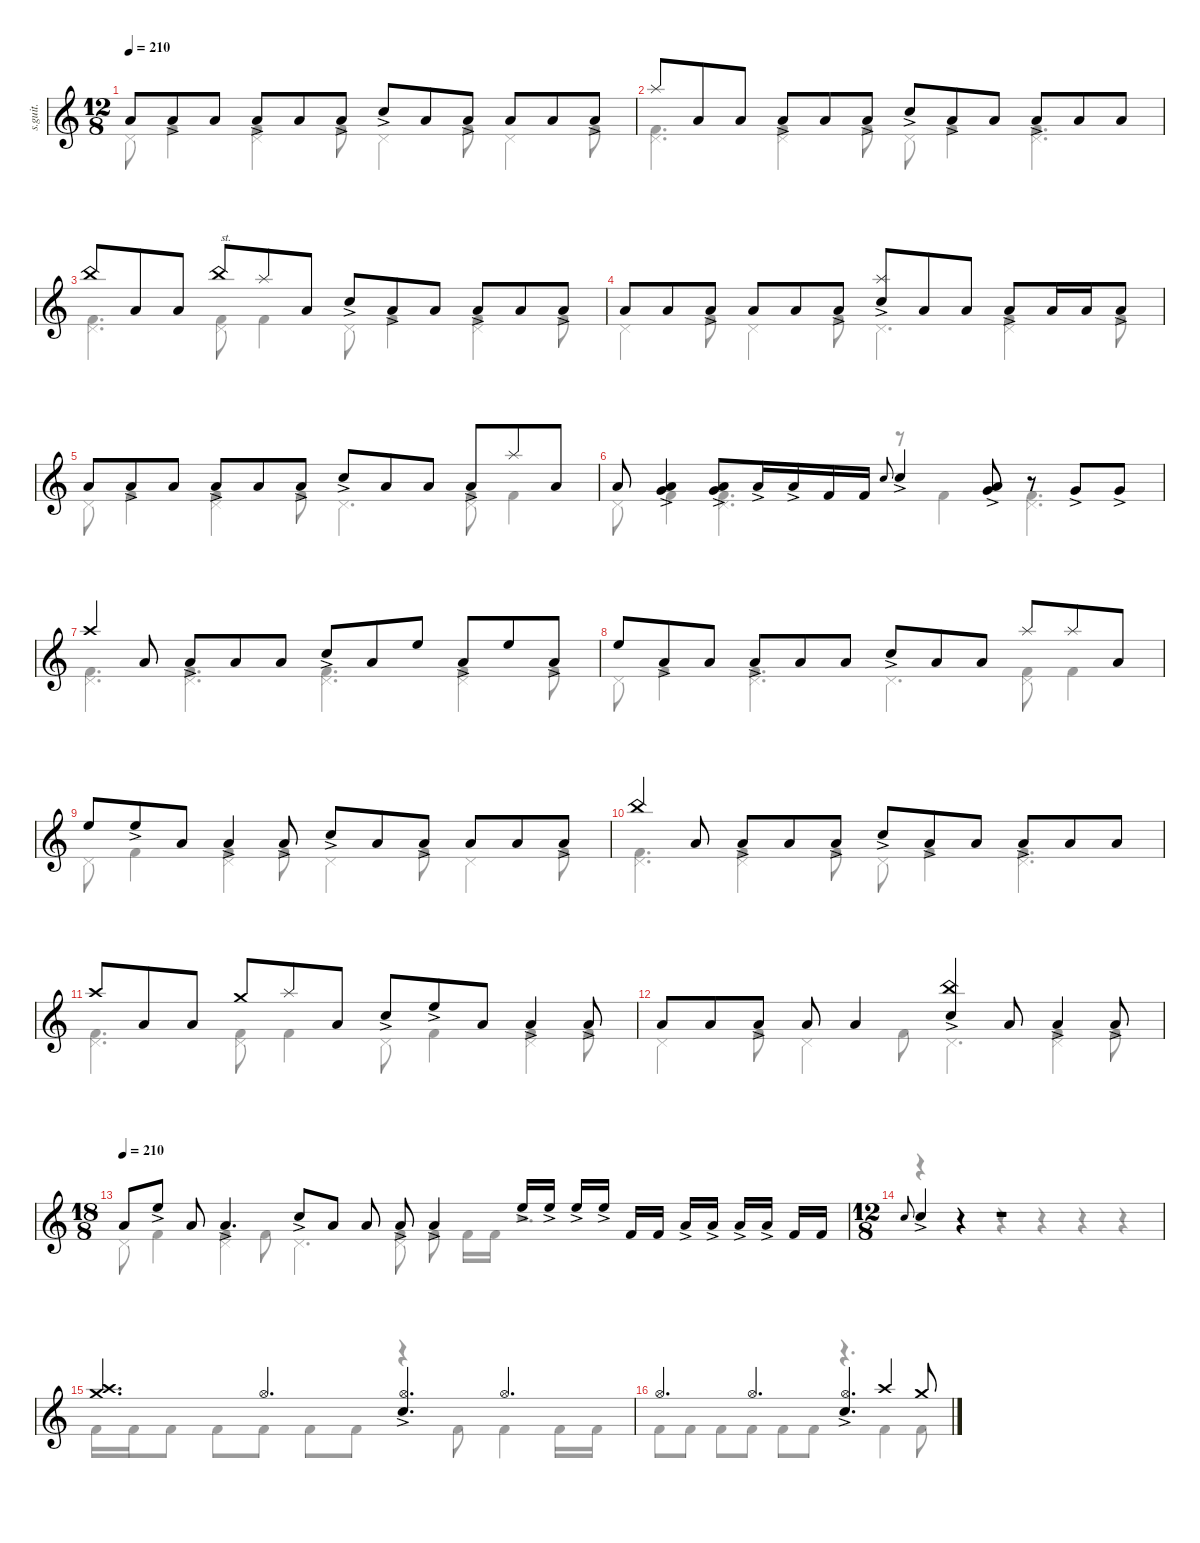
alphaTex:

\defaultSystemsLayout 4
\hideDynamics
\bracketExtendMode nobrackets
\track ("Percussion" "s.guit.") {instrument percussion}
\staff {score}
\articulation defaults
\voice
\ts (12 8)
\tempo 210
\clef g2
\ks c "Low Tom (hit)".8{lyrics (0 "") lyrics (1 "") lyrics (2 "") lyrics (3 "") lyrics (4 "") dy f} "Low Tom (hit)"{ac}.8{lyrics (0 "") lyrics (1 "") lyrics (2 "") lyrics (3 "") lyrics (4 "") dy mf} "Low Tom (hit)".8{lyrics (0 "") lyrics (1 "") lyrics (2 "") lyrics (3 "") lyrics (4 "") dy f} "Low Tom (hit)"{ac}.8{lyrics (0 "") lyrics (1 "") lyrics (2 "") lyrics (3 "") lyrics (4 "") dy mf} "Low Tom (hit)".8{lyrics (0 "") lyrics (1 "") lyrics (2 "") lyrics (3 "") lyrics (4 "") dy f} "Low Tom (hit)"{ac}.8{lyrics (0 "") lyrics (1 "") lyrics (2 "") lyrics (3 "") lyrics (4 "") dy mf} "Snare (hit) 2"{ac}.8{lyrics (0 "") lyrics (1 "") lyrics (2 "") lyrics (3 "") lyrics (4 "")} "Low Tom (hit)".8{lyrics (0 "") lyrics (1 "") lyrics (2 "") lyrics (3 "") lyrics (4 "") dy f} "Low Tom (hit)"{ac}.8{lyrics (0 "") lyrics (1 "") lyrics (2 "") lyrics (3 "") lyrics (4 "") dy mf} "Low Tom (hit)".8{lyrics (0 "") lyrics (1 "") lyrics (2 "") lyrics (3 "") lyrics (4 "") dy f} "Low Tom (hit)".8{lyrics (0 "") lyrics (1 "") lyrics (2 "") lyrics (3 "") lyrics (4 "")} "Low Tom (hit)"{ac}.8{lyrics (0 "") lyrics (1 "") lyrics (2 "") lyrics (3 "") lyrics (4 "") dy mf}
|
"Splash (hit)".8{lyrics (0 "") lyrics (1 "") lyrics (2 "") lyrics (3 "") lyrics (4 "") dy f} "Low Tom (hit)".8{lyrics (0 "") lyrics (1 "") lyrics (2 "") lyrics (3 "") lyrics (4 "")} "Low Tom (hit)".8{lyrics (0 "") lyrics (1 "") lyrics (2 "") lyrics (3 "") lyrics (4 "")} "Low Tom (hit)"{ac}.8{lyrics (0 "") lyrics (1 "") lyrics (2 "") lyrics (3 "") lyrics (4 "") dy mf} "Low Tom (hit)".8{lyrics (0 "") lyrics (1 "") lyrics (2 "") lyrics (3 "") lyrics (4 "") dy f} "Low Tom (hit)"{ac}.8{lyrics (0 "") lyrics (1 "") lyrics (2 "") lyrics (3 "") lyrics (4 "") dy mf} "Snare (hit) 2"{ac}.8{lyrics (0 "") lyrics (1 "") lyrics (2 "") lyrics (3 "") lyrics (4 "")} "Low Tom (hit)"{ac}.8{lyrics (0 "") lyrics (1 "") lyrics (2 "") lyrics (3 "") lyrics (4 "")} "Low Tom (hit)".8{lyrics (0 "") lyrics (1 "") lyrics (2 "") lyrics (3 "") lyrics (4 "") dy f} "Low Tom (hit)"{ac}.8{lyrics (0 "") lyrics (1 "") lyrics (2 "") lyrics (3 "") lyrics (4 "") dy mf} "Low Tom (hit)".8{lyrics (0 "") lyrics (1 "") lyrics (2 "") lyrics (3 "") lyrics (4 "") dy f} "Low Tom (hit)".8{lyrics (0 "") lyrics (1 "") lyrics (2 "") lyrics (3 "") lyrics (4 "")} |
"China (hit)".8{lyrics (0 "") lyrics (1 "") lyrics (2 "") lyrics (3 "") lyrics (4 "")} "Low Tom (hit)".8{lyrics (0 "") lyrics (1 "") lyrics (2 "") lyrics (3 "") lyrics (4 "")} "Low Tom (hit)".8{lyrics (0 "") lyrics (1 "") lyrics (2 "") lyrics (3 "") lyrics (4 "")} "China (hit)".8{txt "st." lyrics (0 "") lyrics (1 "") lyrics (2 "") lyrics (3 "") lyrics (4 "")} "Splash (hit)".8{lyrics (0 "") lyrics (1 "") lyrics (2 "") lyrics (3 "") lyrics (4 "")} "Low Tom (hit)".8{lyrics (0 "") lyrics (1 "") lyrics (2 "") lyrics (3 "") lyrics (4 "")} "Snare (hit) 2"{ac}.8{lyrics (0 "") lyrics (1 "") lyrics (2 "") lyrics (3 "") lyrics (4 "") dy mf} "Low Tom (hit)"{ac}.8{lyrics (0 "") lyrics (1 "") lyrics (2 "") lyrics (3 "") lyrics (4 "")} "Low Tom (hit)".8{lyrics (0 "") lyrics (1 "") lyrics (2 "") lyrics (3 "") lyrics (4 "") dy f} "Low Tom (hit)"{ac}.8{lyrics (0 "") lyrics (1 "") lyrics (2 "") lyrics (3 "") lyrics (4 "") dy mf} "Low Tom (hit)".8{lyrics (0 "") lyrics (1 "") lyrics (2 "") lyrics (3 "") lyrics (4 "") dy f} "Low Tom (hit)"{ac}.8{lyrics (0 "") lyrics (1 "") lyrics (2 "") lyrics (3 "") lyrics (4 "") dy mf} |
"Low Tom (hit)".8{lyrics (0 "") lyrics (1 "") lyrics (2 "") lyrics (3 "") lyrics (4 "") dy f} "Low Tom (hit)".8{lyrics (0 "") lyrics (1 "") lyrics (2 "") lyrics (3 "") lyrics (4 "")} "Low Tom (hit)"{ac}.8{lyrics (0 "") lyrics (1 "") lyrics (2 "") lyrics (3 "") lyrics (4 "") dy mf} "Low Tom (hit)".8{lyrics (0 "") lyrics (1 "") lyrics (2 "") lyrics (3 "") lyrics (4 "") dy f} "Low Tom (hit)".8{lyrics (0 "") lyrics (1 "") lyrics (2 "") lyrics (3 "") lyrics (4 "")} "Low Tom (hit)"{ac}.8{lyrics (0 "") lyrics (1 "") lyrics (2 "") lyrics (3 "") lyrics (4 "") dy mf} ("Snare (hit) 2"{ac} "Splash (hit)").8{lyrics (0 "") lyrics (1 "") lyrics (2 "") lyrics (3 "") lyrics (4 "") dy f} "Low Tom (hit)".8{lyrics (0 "") lyrics (1 "") lyrics (2 "") lyrics (3 "") lyrics (4 "")} "Low Tom (hit)".8{lyrics (0 "") lyrics (1 "") lyrics (2 "") lyrics (3 "") lyrics (4 "")} "Low Tom (hit)"{ac}.8{lyrics (0 "") lyrics (1 "") lyrics (2 "") lyrics (3 "") lyrics (4 "") dy mf} "Low Tom (hit)".16{lyrics (0 "") lyrics (1 "") lyrics (2 "") lyrics (3 "") lyrics (4 "") dy f} "Low Tom (hit)".16{lyrics (0 "") lyrics (1 "") lyrics (2 "") lyrics (3 "") lyrics (4 "")} "Low Tom (hit)"{ac}.8{lyrics (0 "") lyrics (1 "") lyrics (2 "") lyrics (3 "") lyrics (4 "") dy mf} |
"Low Tom (hit)".8{lyrics (0 "") lyrics (1 "") lyrics (2 "") lyrics (3 "") lyrics (4 "") dy f} "Low Tom (hit)"{ac}.8{lyrics (0 "") lyrics (1 "") lyrics (2 "") lyrics (3 "") lyrics (4 "") dy mf} "Low Tom (hit)".8{lyrics (0 "") lyrics (1 "") lyrics (2 "") lyrics (3 "") lyrics (4 "") dy f} "Low Tom (hit)"{ac}.8{lyrics (0 "") lyrics (1 "") lyrics (2 "") lyrics (3 "") lyrics (4 "") dy mf} "Low Tom (hit)".8{lyrics (0 "") lyrics (1 "") lyrics (2 "") lyrics (3 "") lyrics (4 "") dy f} "Low Tom (hit)"{ac}.8{lyrics (0 "") lyrics (1 "") lyrics (2 "") lyrics (3 "") lyrics (4 "") dy mf} "Snare (hit) 2"{ac}.8{lyrics (0 "") lyrics (1 "") lyrics (2 "") lyrics (3 "") lyrics (4 "")} "Low Tom (hit)".8{lyrics (0 "") lyrics (1 "") lyrics (2 "") lyrics (3 "") lyrics (4 "") dy f} "Low Tom (hit)".8{lyrics (0 "") lyrics (1 "") lyrics (2 "") lyrics (3 "") lyrics (4 "")} "Low Tom (hit)"{ac}.8{lyrics (0 "") lyrics (1 "") lyrics (2 "") lyrics (3 "") lyrics (4 "") dy mf} "Splash (hit)".8{lyrics (0 "") lyrics (1 "") lyrics (2 "") lyrics (3 "") lyrics (4 "") dy f} "Low Tom (hit)".8{lyrics (0 "") lyrics (1 "") lyrics (2 "") lyrics (3 "") lyrics (4 "")} |
"Low Tom (hit)".8{lyrics (0 "") lyrics (1 "") lyrics (2 "") lyrics (3 "") lyrics (4 "")} ("Low Tom (hit)"{ac} "Very Low Tom (hit)"{ac}).4{lyrics (0 "") lyrics (1 "") lyrics (2 "") lyrics (3 "") lyrics (4 "") dy mf} ("Low Tom (hit)"{ac} "Very Low Tom (hit)"{ac}).8{lyrics (0 "") lyrics (1 "") lyrics (2 "") lyrics (3 "") lyrics (4 "")} "Low Tom (hit)"{ac}.16{lyrics (0 "") lyrics (1 "") lyrics (2 "") lyrics (3 "") lyrics (4 "")} "Low Tom (hit)"{ac}.16{lyrics (0 "") lyrics (1 "") lyrics (2 "") lyrics (3 "") lyrics (4 "")} "Kick (hit) 2".16{lyrics (0 "") lyrics (1 "") lyrics (2 "") lyrics (3 "") lyrics (4 "") dy f} "Kick (hit) 2".16{lyrics (0 "") lyrics (1 "") lyrics (2 "") lyrics (3 "") lyrics (4 "")} "Snare (hit) 2".8{lyrics (0 "") lyrics (1 "") lyrics (2 "") lyrics (3 "") lyrics (4 "") gr onbeat dy mf} "Snare (hit) 2"{ac}.4{lyrics (0 "") lyrics (1 "") lyrics (2 "") lyrics (3 "") lyrics (4 "")} ("Low Tom (hit)"{ac} "Very Low Tom (hit)"{ac}).8{lyrics (0 "") lyrics (1 "") lyrics (2 "") lyrics (3 "") lyrics (4 "")} r.8 "Very Low Tom (hit)"{ac}.8{lyrics (0 "") lyrics (1 "") lyrics (2 "") lyrics (3 "") lyrics (4 "")} "Very Low Tom (hit)"{ac}.8{lyrics (0 "") lyrics (1 "") lyrics (2 "") lyrics (3 "") lyrics (4 "")} |
"Crash high (hit)".4{lyrics (0 "") lyrics (1 "") lyrics (2 "") lyrics (3 "") lyrics (4 "") dy f} "Low Tom (hit)".8{lyrics (0 "") lyrics (1 "") lyrics (2 "") lyrics (3 "") lyrics (4 "")} "Low Tom (hit)"{ac}.8{lyrics (0 "") lyrics (1 "") lyrics (2 "") lyrics (3 "") lyrics (4 "") dy mf} "Low Tom (hit)".8{lyrics (0 "") lyrics (1 "") lyrics (2 "") lyrics (3 "") lyrics (4 "") dy f} "Low Tom (hit)".8{lyrics (0 "") lyrics (1 "") lyrics (2 "") lyrics (3 "") lyrics (4 "")} "Snare (hit) 2"{ac}.8{lyrics (0 "") lyrics (1 "") lyrics (2 "") lyrics (3 "") lyrics (4 "") dy mf} "Low Tom (hit)".8{lyrics (0 "") lyrics (1 "") lyrics (2 "") lyrics (3 "") lyrics (4 "") dy f} "High Floor Tom (hit)".8{lyrics (0 "") lyrics (1 "") lyrics (2 "") lyrics (3 "") lyrics (4 "")} "Low Tom (hit)"{ac}.8{lyrics (0 "") lyrics (1 "") lyrics (2 "") lyrics (3 "") lyrics (4 "") dy mf} "High Floor Tom (hit)".8{lyrics (0 "") lyrics (1 "") lyrics (2 "") lyrics (3 "") lyrics (4 "") dy f} "Low Tom (hit)"{ac}.8{lyrics (0 "") lyrics (1 "") lyrics (2 "") lyrics (3 "") lyrics (4 "") dy mf} |
"High Floor Tom (hit)".8{lyrics (0 "") lyrics (1 "") lyrics (2 "") lyrics (3 "") lyrics (4 "") dy f} "Low Tom (hit)"{ac}.8{lyrics (0 "") lyrics (1 "") lyrics (2 "") lyrics (3 "") lyrics (4 "") dy mf} "Low Tom (hit)".8{lyrics (0 "") lyrics (1 "") lyrics (2 "") lyrics (3 "") lyrics (4 "") dy f} "Low Tom (hit)"{ac}.8{lyrics (0 "") lyrics (1 "") lyrics (2 "") lyrics (3 "") lyrics (4 "") dy mf} "Low Tom (hit)".8{lyrics (0 "") lyrics (1 "") lyrics (2 "") lyrics (3 "") lyrics (4 "") dy f} "Low Tom (hit)".8{lyrics (0 "") lyrics (1 "") lyrics (2 "") lyrics (3 "") lyrics (4 "")} "Snare (hit) 2"{ac}.8{lyrics (0 "") lyrics (1 "") lyrics (2 "") lyrics (3 "") lyrics (4 "") dy mf} "Low Tom (hit)".8{lyrics (0 "") lyrics (1 "") lyrics (2 "") lyrics (3 "") lyrics (4 "") dy f} "Low Tom (hit)".8{lyrics (0 "") lyrics (1 "") lyrics (2 "") lyrics (3 "") lyrics (4 "")} "Splash (hit)".8{lyrics (0 "") lyrics (1 "") lyrics (2 "") lyrics (3 "") lyrics (4 "")} "Splash (hit)".8{lyrics (0 "") lyrics (1 "") lyrics (2 "") lyrics (3 "") lyrics (4 "")} "Low Tom (hit)".8{lyrics (0 "") lyrics (1 "") lyrics (2 "") lyrics (3 "") lyrics (4 "")} |
"High Floor Tom (hit)".8{lyrics (0 "") lyrics (1 "") lyrics (2 "") lyrics (3 "") lyrics (4 "")} "High Floor Tom (hit)"{ac}.8{lyrics (0 "") lyrics (1 "") lyrics (2 "") lyrics (3 "") lyrics (4 "") dy mf} "Low Tom (hit)".8{lyrics (0 "") lyrics (1 "") lyrics (2 "") lyrics (3 "") lyrics (4 "") dy f} "Low Tom (hit)"{ac}.4{lyrics (0 "") lyrics (1 "") lyrics (2 "") lyrics (3 "") lyrics (4 "") dy mf} "Low Tom (hit)"{ac}.8{lyrics (0 "") lyrics (1 "") lyrics (2 "") lyrics (3 "") lyrics (4 "")} "Snare (hit) 2"{ac}.8{lyrics (0 "") lyrics (1 "") lyrics (2 "") lyrics (3 "") lyrics (4 "")} "Low Tom (hit)".8{lyrics (0 "") lyrics (1 "") lyrics (2 "") lyrics (3 "") lyrics (4 "") dy f} "Low Tom (hit)"{ac}.8{lyrics (0 "") lyrics (1 "") lyrics (2 "") lyrics (3 "") lyrics (4 "") dy mf} "Low Tom (hit)".8{lyrics (0 "") lyrics (1 "") lyrics (2 "") lyrics (3 "") lyrics (4 "") dy f} "Low Tom (hit)".8{lyrics (0 "") lyrics (1 "") lyrics (2 "") lyrics (3 "") lyrics (4 "")} "Low Tom (hit)"{ac}.8{lyrics (0 "") lyrics (1 "") lyrics (2 "") lyrics (3 "") lyrics (4 "") dy mf} |
"China (hit)".4{lyrics (0 "") lyrics (1 "") lyrics (2 "") lyrics (3 "") lyrics (4 "") dy f} "Low Tom (hit)".8{lyrics (0 "") lyrics (1 "") lyrics (2 "") lyrics (3 "") lyrics (4 "")} "Low Tom (hit)"{ac}.8{lyrics (0 "") lyrics (1 "") lyrics (2 "") lyrics (3 "") lyrics (4 "") dy mf} "Low Tom (hit)".8{lyrics (0 "") lyrics (1 "") lyrics (2 "") lyrics (3 "") lyrics (4 "") dy f} "Low Tom (hit)"{ac}.8{lyrics (0 "") lyrics (1 "") lyrics (2 "") lyrics (3 "") lyrics (4 "") dy mf} "Snare (hit) 2"{ac}.8{lyrics (0 "") lyrics (1 "") lyrics (2 "") lyrics (3 "") lyrics (4 "")} "Low Tom (hit)"{ac}.8{lyrics (0 "") lyrics (1 "") lyrics (2 "") lyrics (3 "") lyrics (4 "")} "Low Tom (hit)".8{lyrics (0 "") lyrics (1 "") lyrics (2 "") lyrics (3 "") lyrics (4 "") dy f} "Low Tom (hit)"{ac}.8{lyrics (0 "") lyrics (1 "") lyrics (2 "") lyrics (3 "") lyrics (4 "") dy mf} "Low Tom (hit)".8{lyrics (0 "") lyrics (1 "") lyrics (2 "") lyrics (3 "") lyrics (4 "") dy f} "Low Tom (hit)".8{lyrics (0 "") lyrics (1 "") lyrics (2 "") lyrics (3 "") lyrics (4 "")} |
"Crash high (hit)".8{lyrics (0 "") lyrics (1 "") lyrics (2 "") lyrics (3 "") lyrics (4 "")} "Low Tom (hit)".8{lyrics (0 "") lyrics (1 "") lyrics (2 "") lyrics (3 "") lyrics (4 "")} "Low Tom (hit)".8{lyrics (0 "") lyrics (1 "") lyrics (2 "") lyrics (3 "") lyrics (4 "")} "Crash medium (hit)".8{lyrics (0 "") lyrics (1 "") lyrics (2 "") lyrics (3 "") lyrics (4 "")} "Splash (hit)".8{lyrics (0 "") lyrics (1 "") lyrics (2 "") lyrics (3 "") lyrics (4 "")} "Low Tom (hit)".8{lyrics (0 "") lyrics (1 "") lyrics (2 "") lyrics (3 "") lyrics (4 "")} "Snare (hit) 2"{ac}.8{lyrics (0 "") lyrics (1 "") lyrics (2 "") lyrics (3 "") lyrics (4 "") dy mf} "High Floor Tom (hit)"{ac}.8{lyrics (0 "") lyrics (1 "") lyrics (2 "") lyrics (3 "") lyrics (4 "") dy mp} "Low Tom (hit)".8{lyrics (0 "") lyrics (1 "") lyrics (2 "") lyrics (3 "") lyrics (4 "") dy f} "Low Tom (hit)"{ac}.4{lyrics (0 "") lyrics (1 "") lyrics (2 "") lyrics (3 "") lyrics (4 "") dy mf} "Low Tom (hit)"{ac}.8{lyrics (0 "") lyrics (1 "") lyrics (2 "") lyrics (3 "") lyrics (4 "")} |
"Low Tom (hit)".8{lyrics (0 "") lyrics (1 "") lyrics (2 "") lyrics (3 "") lyrics (4 "") dy f} "Low Tom (hit)".8{lyrics (0 "") lyrics (1 "") lyrics (2 "") lyrics (3 "") lyrics (4 "")} "Low Tom (hit)"{ac}.8{lyrics (0 "") lyrics (1 "") lyrics (2 "") lyrics (3 "") lyrics (4 "") dy mf} "Low Tom (hit)".8{lyrics (0 "") lyrics (1 "") lyrics (2 "") lyrics (3 "") lyrics (4 "") dy f} "Low Tom (hit)".4{lyrics (0 "") lyrics (1 "") lyrics (2 "") lyrics (3 "") lyrics (4 "")} ("Snare (hit) 2"{ac} "China (hit)").4{lyrics (0 "") lyrics (1 "") lyrics (2 "") lyrics (3 "") lyrics (4 "")} "Low Tom (hit)".8{lyrics (0 "") lyrics (1 "") lyrics (2 "") lyrics (3 "") lyrics (4 "")} "Low Tom (hit)"{ac}.4{lyrics (0 "") lyrics (1 "") lyrics (2 "") lyrics (3 "") lyrics (4 "") dy mf} "Low Tom (hit)"{ac}.8{lyrics (0 "") lyrics (1 "") lyrics (2 "") lyrics (3 "") lyrics (4 "")} |
\ts (18 8)
\beaming (8 2 2 2 2)
\tempo (210)
"Low Tom (hit)".8{lyrics (0 "") lyrics (1 "") lyrics (2 "") lyrics (3 "") lyrics (4 "") dy f} "High Floor Tom (hit)"{ac}.8{lyrics (0 "") lyrics (1 "") lyrics (2 "") lyrics (3 "") lyrics (4 "") dy mf} "Low Tom (hit)".8{lyrics (0 "") lyrics (1 "") lyrics (2 "") lyrics (3 "") lyrics (4 "") dy f} "Low Tom (hit)"{ac}.4{d lyrics (0 "") lyrics (1 "") lyrics (2 "") lyrics (3 "") lyrics (4 "") dy mf} "Snare (hit) 2"{ac}.8{lyrics (0 "") lyrics (1 "") lyrics (2 "") lyrics (3 "") lyrics (4 "")} "Low Tom (hit)".8{lyrics (0 "") lyrics (1 "") lyrics (2 "") lyrics (3 "") lyrics (4 "") dy f} "Low Tom (hit)".8{lyrics (0 "") lyrics (1 "") lyrics (2 "") lyrics (3 "") lyrics (4 "")} "Low Tom (hit)"{ac}.8{lyrics (0 "") lyrics (1 "") lyrics (2 "") lyrics (3 "") lyrics (4 "") dy mf} "Low Tom (hit)"{ac}.4{lyrics (0 "") lyrics (1 "") lyrics (2 "") lyrics (3 "") lyrics (4 "")} "High Floor Tom (hit)"{ac}.16{lyrics (0 "") lyrics (1 "") lyrics (2 "") lyrics (3 "") lyrics (4 "")} "High Floor Tom (hit)"{ac}.16{lyrics (0 "") lyrics (1 "") lyrics (2 "") lyrics (3 "") lyrics (4 "")} "High Floor Tom (hit)"{ac}.16{lyrics (0 "") lyrics (1 "") lyrics (2 "") lyrics (3 "") lyrics (4 "")} "High Floor Tom (hit)"{ac}.16{lyrics (0 "") lyrics (1 "") lyrics (2 "") lyrics (3 "") lyrics (4 "")} "Kick (hit) 2".16{lyrics (0 "") lyrics (1 "") lyrics (2 "") lyrics (3 "") lyrics (4 "") dy f} "Kick (hit) 2".16{lyrics (0 "") lyrics (1 "") lyrics (2 "") lyrics (3 "") lyrics (4 "")} "Low Tom (hit)"{ac}.16{lyrics (0 "") lyrics (1 "") lyrics (2 "") lyrics (3 "") lyrics (4 "") dy mf} "Low Tom (hit)"{ac}.16{lyrics (0 "") lyrics (1 "") lyrics (2 "") lyrics (3 "") lyrics (4 "")} "Low Tom (hit)"{ac}.16{lyrics (0 "") lyrics (1 "") lyrics (2 "") lyrics (3 "") lyrics (4 "")} "Low Tom (hit)"{ac}.16{lyrics (0 "") lyrics (1 "") lyrics (2 "") lyrics (3 "") lyrics (4 "")} "Kick (hit) 2".16{lyrics (0 "") lyrics (1 "") lyrics (2 "") lyrics (3 "") lyrics (4 "") dy f} "Kick (hit) 2".16{lyrics (0 "") lyrics (1 "") lyrics (2 "") lyrics (3 "") lyrics (4 "")} |
\ts (12 8)
\beaming (8 2 2 2 2)
"Snare (hit) 2".8{lyrics (0 "") lyrics (1 "") lyrics (2 "") lyrics (3 "") lyrics (4 "") gr onbeat dy mf} "Snare (hit) 2"{ac}.4{lyrics (0 "") lyrics (1 "") lyrics (2 "") lyrics (3 "") lyrics (4 "")} r.4 r.1 |
("Crash high (hit)" "Crash medium (hit)").4{d lyrics (0 "") lyrics (1 "") lyrics (2 "") lyrics (3 "") lyrics (4 "") dy f} "Hi-Hat (open)".4{d lyrics (0 "") lyrics (1 "") lyrics (2 "") lyrics (3 "") lyrics (4 "")} ("Hi-Hat (open)" "Snare (hit) 2"{ac}).4{d lyrics (0 "") lyrics (1 "") lyrics (2 "") lyrics (3 "") lyrics (4 "")} "Hi-Hat (open)".4{d lyrics (0 "") lyrics (1 "") lyrics (2 "") lyrics (3 "") lyrics (4 "")} |
"Hi-Hat (open)".4{d lyrics (0 "") lyrics (1 "") lyrics (2 "") lyrics (3 "") lyrics (4 "")} "Hi-Hat (open)".4{d lyrics (0 "") lyrics (1 "") lyrics (2 "") lyrics (3 "") lyrics (4 "")} ("Hi-Hat (open)" "Snare (hit) 2"{ac}).4{d lyrics (0 "") lyrics (1 "") lyrics (2 "") lyrics (3 "") lyrics (4 "")} "Crash high (hit)".4{lyrics (0 "") lyrics (1 "") lyrics (2 "") lyrics (3 "") lyrics (4 "")} "Crash medium (hit)".8{lyrics (0 "") lyrics (1 "") lyrics (2 "") lyrics (3 "") lyrics (4 "")}
\voice
\clef g2
\ottava regular
\simile none
\ks c "Pedal Hi-Hat (hit)".8{lyrics (0 "") lyrics (1 "") lyrics (2 "") lyrics (3 "") lyrics (4 "") dy f} "Kick (hit) 2".4{lyrics (0 "") lyrics (1 "") lyrics (2 "") lyrics (3 "") lyrics (4 "")}
("Kick (hit) 2" "Pedal Hi-Hat (hit)").4{lyrics (0 "") lyrics (1 "") lyrics (2 "") lyrics (3 "") lyrics (4 "")} "Kick (hit) 2".8{lyrics (0 "") lyrics (1 "") lyrics (2 "") lyrics (3 "") lyrics (4 "")} "Pedal Hi-Hat (hit)".4{lyrics (0 "") lyrics (1 "") lyrics (2 "") lyrics (3 "") lyrics (4 "")} "Kick (hit) 2".8{lyrics (0 "") lyrics (1 "") lyrics (2 "") lyrics (3 "") lyrics (4 "")} "Pedal Hi-Hat (hit)".4{lyrics (0 "") lyrics (1 "") lyrics (2 "") lyrics (3 "") lyrics (4 "")} "Kick (hit) 2".8{lyrics (0 "") lyrics (1 "") lyrics (2 "") lyrics (3 "") lyrics (4 "")} |
("Kick (hit) 2" "Pedal Hi-Hat (hit)").4{d lyrics (0 "") lyrics (1 "") lyrics (2 "") lyrics (3 "") lyrics (4 "")} ("Kick (hit) 2" "Pedal Hi-Hat (hit)").4{lyrics (0 "") lyrics (1 "") lyrics (2 "") lyrics (3 "") lyrics (4 "")} "Kick (hit) 2".8{lyrics (0 "") lyrics (1 "") lyrics (2 "") lyrics (3 "") lyrics (4 "")} "Pedal Hi-Hat (hit)".8{lyrics (0 "") lyrics (1 "") lyrics (2 "") lyrics (3 "") lyrics (4 "")} "Kick (hit) 2".4{lyrics (0 "") lyrics (1 "") lyrics (2 "") lyrics (3 "") lyrics (4 "")} ("Kick (hit) 2" "Pedal Hi-Hat (hit)").4{d lyrics (0 "") lyrics (1 "") lyrics (2 "") lyrics (3 "") lyrics (4 "")} |
("Kick (hit) 2" "Pedal Hi-Hat (hit)").4{d lyrics (0 "") lyrics (1 "") lyrics (2 "") lyrics (3 "") lyrics (4 "")} ("Kick (hit) 2" "Pedal Hi-Hat (hit)").8{lyrics (0 "") lyrics (1 "") lyrics (2 "") lyrics (3 "") lyrics (4 "")} "Kick (hit) 2".4{lyrics (0 "") lyrics (1 "") lyrics (2 "") lyrics (3 "") lyrics (4 "")} "Pedal Hi-Hat (hit)".8{lyrics (0 "") lyrics (1 "") lyrics (2 "") lyrics (3 "") lyrics (4 "")} "Kick (hit) 2".4{lyrics (0 "") lyrics (1 "") lyrics (2 "") lyrics (3 "") lyrics (4 "")} ("Kick (hit) 2" "Pedal Hi-Hat (hit)").4{lyrics (0 "") lyrics (1 "") lyrics (2 "") lyrics (3 "") lyrics (4 "")} "Kick (hit) 2".8{lyrics (0 "") lyrics (1 "") lyrics (2 "") lyrics (3 "") lyrics (4 "")} |
"Pedal Hi-Hat (hit)".4{lyrics (0 "") lyrics (1 "") lyrics (2 "") lyrics (3 "") lyrics (4 "")} "Kick (hit) 2".8{lyrics (0 "") lyrics (1 "") lyrics (2 "") lyrics (3 "") lyrics (4 "")} "Pedal Hi-Hat (hit)".4{lyrics (0 "") lyrics (1 "") lyrics (2 "") lyrics (3 "") lyrics (4 "")} "Kick (hit) 2".8{lyrics (0 "") lyrics (1 "") lyrics (2 "") lyrics (3 "") lyrics (4 "")} "Pedal Hi-Hat (hit)".4{d lyrics (0 "") lyrics (1 "") lyrics (2 "") lyrics (3 "") lyrics (4 "")} ("Kick (hit) 2" "Pedal Hi-Hat (hit)").4{lyrics (0 "") lyrics (1 "") lyrics (2 "") lyrics (3 "") lyrics (4 "")} "Kick (hit) 2".8{lyrics (0 "") lyrics (1 "") lyrics (2 "") lyrics (3 "") lyrics (4 "")} |
"Pedal Hi-Hat (hit)".8{lyrics (0 "") lyrics (1 "") lyrics (2 "") lyrics (3 "") lyrics (4 "")} "Kick (hit) 2".4{lyrics (0 "") lyrics (1 "") lyrics (2 "") lyrics (3 "") lyrics (4 "")} ("Kick (hit) 2" "Pedal Hi-Hat (hit)").4{lyrics (0 "") lyrics (1 "") lyrics (2 "") lyrics (3 "") lyrics (4 "")} "Kick (hit) 2".8{lyrics (0 "") lyrics (1 "") lyrics (2 "") lyrics (3 "") lyrics (4 "")} "Pedal Hi-Hat (hit)".4{d lyrics (0 "") lyrics (1 "") lyrics (2 "") lyrics (3 "") lyrics (4 "")} ("Pedal Hi-Hat (hit)" "Kick (hit) 2").8{lyrics (0 "") lyrics (1 "") lyrics (2 "") lyrics (3 "") lyrics (4 "")} "Kick (hit) 2".4{lyrics (0 "") lyrics (1 "") lyrics (2 "") lyrics (3 "") lyrics (4 "")} |
"Pedal Hi-Hat (hit)".8{lyrics (0 "") lyrics (1 "") lyrics (2 "") lyrics (3 "") lyrics (4 "")} "Kick (hit) 2".4{lyrics (0 "") lyrics (1 "") lyrics (2 "") lyrics (3 "") lyrics (4 "")} ("Kick (hit) 2" "Pedal Hi-Hat (hit)").4{d lyrics (0 "") lyrics (1 "") lyrics (2 "") lyrics (3 "") lyrics (4 "")} r.8 "Kick (hit) 2".4{lyrics (0 "") lyrics (1 "") lyrics (2 "") lyrics (3 "") lyrics (4 "")} ("Kick (hit) 2" "Pedal Hi-Hat (hit)").4{d lyrics (0 "") lyrics (1 "") lyrics (2 "") lyrics (3 "") lyrics (4 "")} |
("Kick (hit) 2" "Pedal Hi-Hat (hit)").4{d lyrics (0 "") lyrics (1 "") lyrics (2 "") lyrics (3 "") lyrics (4 "")} ("Kick (hit) 2" "Pedal Hi-Hat (hit)").4{d lyrics (0 "") lyrics (1 "") lyrics (2 "") lyrics (3 "") lyrics (4 "")} ("Kick (hit) 2" "Pedal Hi-Hat (hit)").4{d lyrics (0 "") lyrics (1 "") lyrics (2 "") lyrics (3 "") lyrics (4 "")} ("Kick (hit) 2" "Pedal Hi-Hat (hit)").4{lyrics (0 "") lyrics (1 "") lyrics (2 "") lyrics (3 "") lyrics (4 "")} "Kick (hit) 2".8{lyrics (0 "") lyrics (1 "") lyrics (2 "") lyrics (3 "") lyrics (4 "")} |
"Pedal Hi-Hat (hit)".8{lyrics (0 "") lyrics (1 "") lyrics (2 "") lyrics (3 "") lyrics (4 "")} "Kick (hit) 2".4{lyrics (0 "") lyrics (1 "") lyrics (2 "") lyrics (3 "") lyrics (4 "")} ("Kick (hit) 2" "Pedal Hi-Hat (hit)").4{d lyrics (0 "") lyrics (1 "") lyrics (2 "") lyrics (3 "") lyrics (4 "")} "Pedal Hi-Hat (hit)".4{d lyrics (0 "") lyrics (1 "") lyrics (2 "") lyrics (3 "") lyrics (4 "")} ("Kick (hit) 2" "Pedal Hi-Hat (hit)").8{lyrics (0 "") lyrics (1 "") lyrics (2 "") lyrics (3 "") lyrics (4 "")} "Kick (hit) 2".4{lyrics (0 "") lyrics (1 "") lyrics (2 "") lyrics (3 "") lyrics (4 "")} |
"Pedal Hi-Hat (hit)".8{lyrics (0 "") lyrics (1 "") lyrics (2 "") lyrics (3 "") lyrics (4 "")} "Kick (hit) 2".4{lyrics (0 "") lyrics (1 "") lyrics (2 "") lyrics (3 "") lyrics (4 "")} ("Kick (hit) 2" "Pedal Hi-Hat (hit)").4{lyrics (0 "") lyrics (1 "") lyrics (2 "") lyrics (3 "") lyrics (4 "")} "Kick (hit) 2".8{lyrics (0 "") lyrics (1 "") lyrics (2 "") lyrics (3 "") lyrics (4 "")} "Pedal Hi-Hat (hit)".4{lyrics (0 "") lyrics (1 "") lyrics (2 "") lyrics (3 "") lyrics (4 "")} "Kick (hit) 2".8{lyrics (0 "") lyrics (1 "") lyrics (2 "") lyrics (3 "") lyrics (4 "")} "Pedal Hi-Hat (hit)".4{lyrics (0 "") lyrics (1 "") lyrics (2 "") lyrics (3 "") lyrics (4 "")} "Kick (hit) 2".8{lyrics (0 "") lyrics (1 "") lyrics (2 "") lyrics (3 "") lyrics (4 "")} |
("Kick (hit) 2" "Pedal Hi-Hat (hit)").4{d lyrics (0 "") lyrics (1 "") lyrics (2 "") lyrics (3 "") lyrics (4 "")} ("Kick (hit) 2" "Pedal Hi-Hat (hit)").4{lyrics (0 "") lyrics (1 "") lyrics (2 "") lyrics (3 "") lyrics (4 "")} "Kick (hit) 2".8{lyrics (0 "") lyrics (1 "") lyrics (2 "") lyrics (3 "") lyrics (4 "")} "Pedal Hi-Hat (hit)".8{lyrics (0 "") lyrics (1 "") lyrics (2 "") lyrics (3 "") lyrics (4 "")} "Kick (hit) 2".4{lyrics (0 "") lyrics (1 "") lyrics (2 "") lyrics (3 "") lyrics (4 "")} ("Kick (hit) 2" "Pedal Hi-Hat (hit)").4{d lyrics (0 "") lyrics (1 "") lyrics (2 "") lyrics (3 "") lyrics (4 "")} |
("Kick (hit) 2" "Pedal Hi-Hat (hit)").4{d lyrics (0 "") lyrics (1 "") lyrics (2 "") lyrics (3 "") lyrics (4 "")} ("Kick (hit) 2" "Pedal Hi-Hat (hit)").8{lyrics (0 "") lyrics (1 "") lyrics (2 "") lyrics (3 "") lyrics (4 "")} "Kick (hit) 2".4{lyrics (0 "") lyrics (1 "") lyrics (2 "") lyrics (3 "") lyrics (4 "")} "Pedal Hi-Hat (hit)".8{lyrics (0 "") lyrics (1 "") lyrics (2 "") lyrics (3 "") lyrics (4 "")} "Kick (hit) 2".4{lyrics (0 "") lyrics (1 "") lyrics (2 "") lyrics (3 "") lyrics (4 "")} ("Kick (hit) 2" "Pedal Hi-Hat (hit)").4{lyrics (0 "") lyrics (1 "") lyrics (2 "") lyrics (3 "") lyrics (4 "")} "Kick (hit) 2".8{lyrics (0 "") lyrics (1 "") lyrics (2 "") lyrics (3 "") lyrics (4 "")} |
"Pedal Hi-Hat (hit)".4{lyrics (0 "") lyrics (1 "") lyrics (2 "") lyrics (3 "") lyrics (4 "")} "Kick (hit) 2".8{lyrics (0 "") lyrics (1 "") lyrics (2 "") lyrics (3 "") lyrics (4 "")} "Pedal Hi-Hat (hit)".4{lyrics (0 "") lyrics (1 "") lyrics (2 "") lyrics (3 "") lyrics (4 "")} "Kick (hit) 2".8{lyrics (0 "") lyrics (1 "") lyrics (2 "") lyrics (3 "") lyrics (4 "")} "Pedal Hi-Hat (hit)".4{d lyrics (0 "") lyrics (1 "") lyrics (2 "") lyrics (3 "") lyrics (4 "")} ("Kick (hit) 2" "Pedal Hi-Hat (hit)").4{lyrics (0 "") lyrics (1 "") lyrics (2 "") lyrics (3 "") lyrics (4 "")} "Kick (hit) 2".8{lyrics (0 "") lyrics (1 "") lyrics (2 "") lyrics (3 "") lyrics (4 "")} |
"Pedal Hi-Hat (hit)".8{lyrics (0 "") lyrics (1 "") lyrics (2 "") lyrics (3 "") lyrics (4 "")} "Kick (hit) 2".4{lyrics (0 "") lyrics (1 "") lyrics (2 "") lyrics (3 "") lyrics (4 "")} ("Kick (hit) 2" "Pedal Hi-Hat (hit)").4{lyrics (0 "") lyrics (1 "") lyrics (2 "") lyrics (3 "") lyrics (4 "")} "Kick (hit) 2".8{lyrics (0 "") lyrics (1 "") lyrics (2 "") lyrics (3 "") lyrics (4 "")} "Pedal Hi-Hat (hit)".4{d lyrics (0 "") lyrics (1 "") lyrics (2 "") lyrics (3 "") lyrics (4 "")} ("Pedal Hi-Hat (hit)" "Kick (hit) 2").8{lyrics (0 "") lyrics (1 "") lyrics (2 "") lyrics (3 "") lyrics (4 "")} "Kick (hit) 2".8{lyrics (0 "") lyrics (1 "") lyrics (2 "") lyrics (3 "") lyrics (4 "")} "Kick (hit) 2".16{lyrics (0 "") lyrics (1 "") lyrics (2 "") lyrics (3 "") lyrics (4 "")} "Kick (hit) 2".16{lyrics (0 "") lyrics (1 "") lyrics (2 "") lyrics (3 "") lyrics (4 "")} r.2{d} |
r.4 r.4 r.4 r.4 r.4 r.4 |
"Kick (hit) 2".16{lyrics (0 "") lyrics (1 "") lyrics (2 "") lyrics (3 "") lyrics (4 "")} "Kick (hit) 2".16{lyrics (0 "") lyrics (1 "") lyrics (2 "") lyrics (3 "") lyrics (4 "")} "Kick (hit) 2".8{lyrics (0 "") lyrics (1 "") lyrics (2 "") lyrics (3 "") lyrics (4 "")} "Kick (hit) 2".8{lyrics (0 "") lyrics (1 "") lyrics (2 "") lyrics (3 "") lyrics (4 "")} "Kick (hit) 2".8{lyrics (0 "") lyrics (1 "") lyrics (2 "") lyrics (3 "") lyrics (4 "")} "Kick (hit) 2".8{lyrics (0 "") lyrics (1 "") lyrics (2 "") lyrics (3 "") lyrics (4 "")} "Kick (hit) 2".8{lyrics (0 "") lyrics (1 "") lyrics (2 "") lyrics (3 "") lyrics (4 "")} r.4 "Kick (hit) 2".8{lyrics (0 "") lyrics (1 "") lyrics (2 "") lyrics (3 "") lyrics (4 "")} "Kick (hit) 2".4{lyrics (0 "") lyrics (1 "") lyrics (2 "") lyrics (3 "") lyrics (4 "")} "Kick (hit) 2".16{lyrics (0 "") lyrics (1 "") lyrics (2 "") lyrics (3 "") lyrics (4 "")} "Kick (hit) 2".16{lyrics (0 "") lyrics (1 "") lyrics (2 "") lyrics (3 "") lyrics (4 "")} |
"Kick (hit) 2".8{lyrics (0 "") lyrics (1 "") lyrics (2 "") lyrics (3 "") lyrics (4 "")} "Kick (hit) 2".8{lyrics (0 "") lyrics (1 "") lyrics (2 "") lyrics (3 "") lyrics (4 "")} "Kick (hit) 2".8{lyrics (0 "") lyrics (1 "") lyrics (2 "") lyrics (3 "") lyrics (4 "")} "Kick (hit) 2".8{lyrics (0 "") lyrics (1 "") lyrics (2 "") lyrics (3 "") lyrics (4 "")} "Kick (hit) 2".8{lyrics (0 "") lyrics (1 "") lyrics (2 "") lyrics (3 "") lyrics (4 "")} "Kick (hit) 2".8{lyrics (0 "") lyrics (1 "") lyrics (2 "") lyrics (3 "") lyrics (4 "")} r.4{d} "Kick (hit) 2".4{lyrics (0 "") lyrics (1 "") lyrics (2 "") lyrics (3 "") lyrics (4 "")} "Kick (hit) 2".8{lyrics (0 "") lyrics (1 "") lyrics (2 "") lyrics (3 "") lyrics (4 "")}
